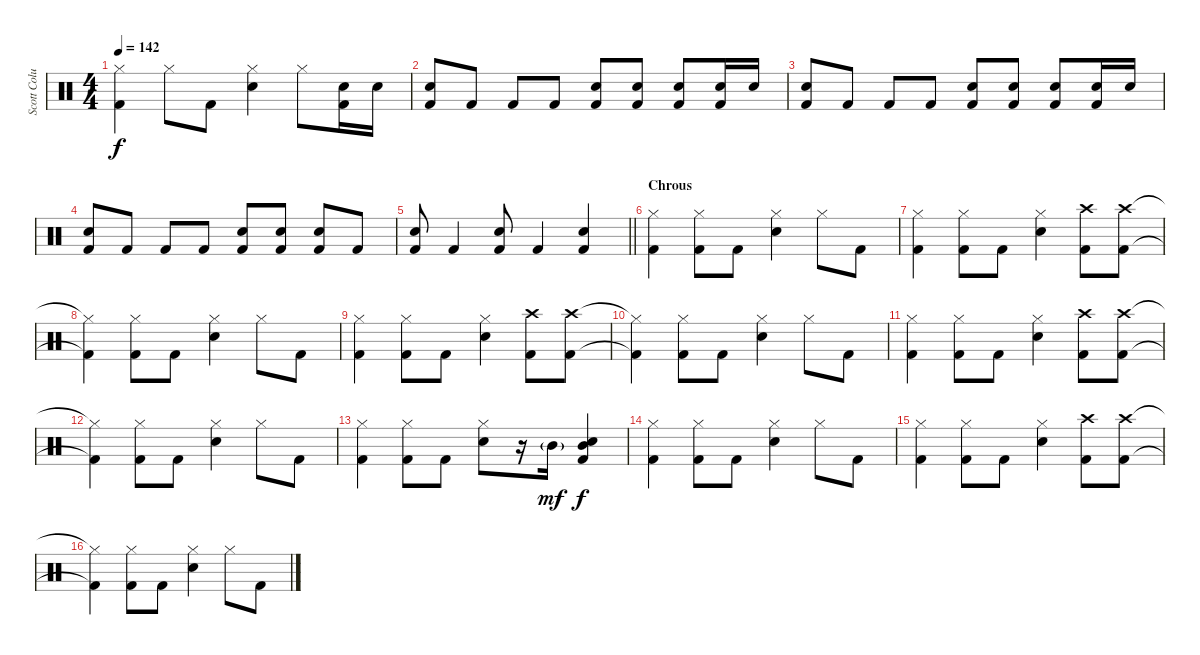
\track ("Scott Columbus" "Scott Colu") {instrument percussion}
\staff {score}
\articulation defaults
\ts (4 4)
\tempo 142
\clef neutral
\ks c
("Hi-Hat (closed)" "Kick (hit) 2").4{dy f} "Hi-Hat (closed)".8 "Kick (hit) 2".8 ("Hi-Hat (closed)" "Snare (hit) 2").4 "Hi-Hat (closed)".8 ("Snare (hit) 2" "Kick (hit) 2").16 "Snare (hit) 2".16 |
("Snare (hit) 2" "Kick (hit) 2").8 "Kick (hit) 2".8 "Kick (hit) 2".8 "Kick (hit) 2".8 ("Snare (hit) 2" "Kick (hit) 2").8 ("Snare (hit) 2" "Kick (hit) 2").8 ("Snare (hit) 2" "Kick (hit) 2").8 ("Snare (hit) 2" "Kick (hit) 2").16 "Snare (hit) 2".16 |
("Snare (hit) 2" "Kick (hit) 2").8 "Kick (hit) 2".8 "Kick (hit) 2".8 "Kick (hit) 2".8 ("Snare (hit) 2" "Kick (hit) 2").8 ("Snare (hit) 2" "Kick (hit) 2").8 ("Snare (hit) 2" "Kick (hit) 2").8 ("Snare (hit) 2" "Kick (hit) 2").16 "Snare (hit) 2".16 |
("Snare (hit) 2" "Kick (hit) 2").8 "Kick (hit) 2".8 "Kick (hit) 2".8 "Kick (hit) 2".8 ("Snare (hit) 2" "Kick (hit) 2").8 ("Snare (hit) 2" "Kick (hit) 2").8 ("Snare (hit) 2" "Kick (hit) 2").8 "Kick (hit) 2".8 |
\barLineRight lightlight
("Snare (hit) 2" "Kick (hit) 2").8 "Kick (hit) 2".4 ("Snare (hit) 2" "Kick (hit) 2").8 "Kick (hit) 2".4 ("Snare (hit) 2" "Kick (hit) 2").4 |
\section ("" "Chrous")
("Hi-Hat (closed)" "Kick (hit) 2").4 ("Hi-Hat (closed)" "Kick (hit) 2").8 "Kick (hit) 2".8 ("Hi-Hat (closed)" "Snare (hit) 2").4 "Hi-Hat (closed)".8 "Kick (hit) 2".8 |
("Hi-Hat (closed)" "Kick (hit) 2").4 ("Hi-Hat (closed)" "Kick (hit) 2").8 "Kick (hit) 2".8 ("Hi-Hat (closed)" "Snare (hit) 2").4 ("Crash high (hit)" "Kick (hit) 2").8 ("Crash high (hit)" "Kick (hit) 2").8 |
("Hi-Hat (closed)"{t} "Kick (hit) 2"{t}).4 ("Hi-Hat (closed)" "Kick (hit) 2").8 "Kick (hit) 2".8 ("Hi-Hat (closed)" "Snare (hit) 2").4 "Hi-Hat (closed)".8 "Kick (hit) 2".8 |
("Hi-Hat (closed)" "Kick (hit) 2").4 ("Hi-Hat (closed)" "Kick (hit) 2").8 "Kick (hit) 2".8 ("Hi-Hat (closed)" "Snare (hit) 2").4 ("Crash high (hit)" "Kick (hit) 2").8 ("Crash high (hit)" "Kick (hit) 2").8 |
("Hi-Hat (closed)"{t} "Kick (hit) 2"{t}).4 ("Hi-Hat (closed)" "Kick (hit) 2").8 "Kick (hit) 2".8 ("Hi-Hat (closed)" "Snare (hit) 2").4 "Hi-Hat (closed)".8 "Kick (hit) 2".8 |
("Hi-Hat (closed)" "Kick (hit) 2").4 ("Hi-Hat (closed)" "Kick (hit) 2").8 "Kick (hit) 2".8 ("Hi-Hat (closed)" "Snare (hit) 2").4 ("Crash high (hit)" "Kick (hit) 2").8 ("Crash high (hit)" "Kick (hit) 2").8 |
("Hi-Hat (closed)"{t} "Kick (hit) 2"{t}).4 ("Hi-Hat (closed)" "Kick (hit) 2").8 "Kick (hit) 2".8 ("Hi-Hat (closed)" "Snare (hit) 2").4 "Hi-Hat (closed)".8 "Kick (hit) 2".8 |
("Hi-Hat (closed)" "Kick (hit) 2").4 ("Hi-Hat (closed)" "Kick (hit) 2").8 "Kick (hit) 2".8 ("Hi-Hat (closed)" "Snare (hit) 2").8 r.16 "Mid Tom (hit)"{g}.16{dy mf} ("Mid Tom (hit)" "Snare (hit) 2" "Kick (hit) 2").4{dy f} |
("Hi-Hat (closed)" "Kick (hit) 2").4 ("Hi-Hat (closed)" "Kick (hit) 2").8 "Kick (hit) 2".8 ("Hi-Hat (closed)" "Snare (hit) 2").4 "Hi-Hat (closed)".8 "Kick (hit) 2".8 |
("Hi-Hat (closed)" "Kick (hit) 2").4 ("Hi-Hat (closed)" "Kick (hit) 2").8 "Kick (hit) 2".8 ("Hi-Hat (closed)" "Snare (hit) 2").4 ("Crash high (hit)" "Kick (hit) 2").8 ("Crash high (hit)" "Kick (hit) 2").8 |
("Hi-Hat (closed)"{t} "Kick (hit) 2"{t}).4 ("Hi-Hat (closed)" "Kick (hit) 2").8 "Kick (hit) 2".8 ("Hi-Hat (closed)" "Snare (hit) 2").4 "Hi-Hat (closed)".8 "Kick (hit) 2".8
